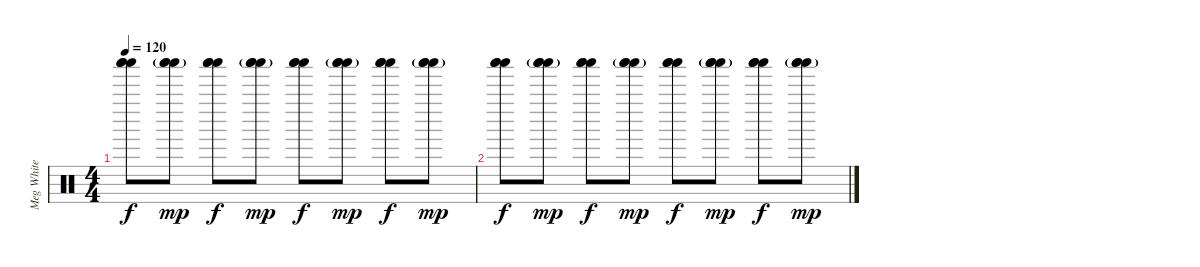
\track ("Meg White" "Meg White") {instrument percussion}
\staff {score}
\articulation defaults
\ts (4 4)
\tempo 120
\clef neutral
\ks c
("Shaker (hit)" "Shaker (hit)" "Shaker (hit)").8{dy f} ("Shaker (hit)"{g} "Shaker (hit)"{g} "Shaker (hit)"{g}).8{dy mp} ("Shaker (hit)" "Shaker (hit)" "Shaker (hit)").8{dy f} ("Shaker (hit)"{g} "Shaker (hit)"{g} "Shaker (hit)"{g}).8{dy mp} ("Shaker (hit)" "Shaker (hit)" "Shaker (hit)").8{dy f} ("Shaker (hit)"{g} "Shaker (hit)"{g} "Shaker (hit)"{g}).8{dy mp} ("Shaker (hit)" "Shaker (hit)" "Shaker (hit)").8{dy f} ("Shaker (hit)"{g} "Shaker (hit)"{g} "Shaker (hit)"{g}).8{dy mp} |
("Shaker (hit)" "Shaker (hit)" "Shaker (hit)").8{dy f} ("Shaker (hit)"{g} "Shaker (hit)"{g} "Shaker (hit)"{g}).8{dy mp} ("Shaker (hit)" "Shaker (hit)" "Shaker (hit)").8{dy f} ("Shaker (hit)"{g} "Shaker (hit)"{g} "Shaker (hit)"{g}).8{dy mp} ("Shaker (hit)" "Shaker (hit)" "Shaker (hit)").8{dy f} ("Shaker (hit)"{g} "Shaker (hit)"{g} "Shaker (hit)"{g}).8{dy mp} ("Shaker (hit)" "Shaker (hit)" "Shaker (hit)").8{dy f} ("Shaker (hit)"{g} "Shaker (hit)"{g} "Shaker (hit)"{g}).8{dy mp}
